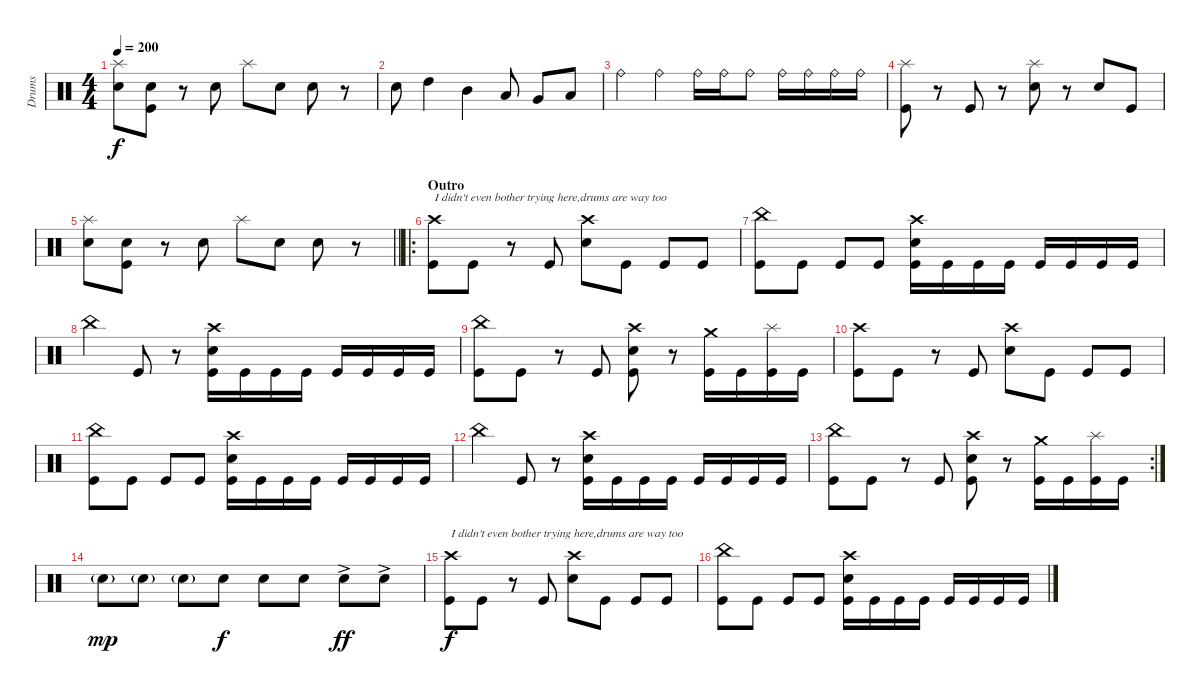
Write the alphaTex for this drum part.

\track ("Drums" "Drums") {instrument percussion}
\staff {score}
\articulation defaults
\ts (4 4)
\tempo 200
\clef neutral
\ks c
("Splash (hit)" "Snare (hit) 2").8{dy f} ("Snare (hit) 2" "Kick (hit)").8 r.8 "Snare (hit) 2".8 "Splash (hit)".8 "Snare (hit) 2".8 "Snare (hit) 2".8 r.8 |
"Snare (hit) 2".8 "High Tom (hit)".4 "Mid Tom (hit)".4 "Low Tom (hit)".8 "Very Low Tom (hit)".8 "Low Floor Tom (hit)".8 |
"Ride (bell)".4 "Ride (bell)".4 "Ride (bell)".16 "Ride (bell)".16 "Ride (bell)".8 "Ride (bell)".16 "Ride (bell)".16 "Ride (bell)".16 "Ride (bell)".16 |
("Splash (hit)" "Kick (hit)").8 r.8 "Kick (hit)".8 r.8 ("Splash (hit)" "Snare (hit) 2").8 r.8 "Snare (hit) 2".8 "Kick (hit)".8 |
\barLineRight lightlight
("Splash (hit)" "Snare (hit) 2").8 ("Snare (hit) 2" "Kick (hit)").8 r.8 "Snare (hit) 2".8 "Splash (hit)".8 "Snare (hit) 2".8 "Snare (hit) 2".8 r.8 |
\ro
\section ("" "Outro")
("Crash high (hit)" "Kick (hit)").8{txt "I didn't even bother trying here,drums are way too"} "Kick (hit)".8 r.8 "Kick (hit)".8 ("Crash high (hit)" "Snare (hit) 2").8 "Kick (hit)".8 "Kick (hit)".8 "Kick (hit)".8 |
("China (hit)" "Kick (hit)").8 "Kick (hit)".8 "Kick (hit)".8 "Kick (hit)".8 ("Crash high (hit)" "Snare (hit) 2" "Kick (hit)").16 "Kick (hit)".16 "Kick (hit)".16 "Kick (hit)".16 "Kick (hit)".16 "Kick (hit)".16 "Kick (hit)".16 "Kick (hit)".16 |
"China (hit)".4 "Kick (hit)".8 r.8 ("Crash high (hit)" "Snare (hit) 2" "Kick (hit)").16 "Kick (hit)".16 "Kick (hit)".16 "Kick (hit)".16 "Kick (hit)".16 "Kick (hit)".16 "Kick (hit)".16 "Kick (hit)".16 |
("China (hit)" "Kick (hit)").8 "Kick (hit)".8 r.8 "Kick (hit)".8 ("Crash high (hit)" "Snare (hit) 2" "Kick (hit)").8 r.8 ("Crash medium (hit)" "Kick (hit)").16 "Kick (hit)".16 ("Splash (hit)" "Kick (hit)").16 "Kick (hit)".16 |
("Crash high (hit)" "Kick (hit)").8 "Kick (hit)".8 r.8 "Kick (hit)".8 ("Crash high (hit)" "Snare (hit) 2").8 "Kick (hit)".8 "Kick (hit)".8 "Kick (hit)".8 |
("China (hit)" "Kick (hit)").8 "Kick (hit)".8 "Kick (hit)".8 "Kick (hit)".8 ("Crash high (hit)" "Snare (hit) 2" "Kick (hit)").16 "Kick (hit)".16 "Kick (hit)".16 "Kick (hit)".16 "Kick (hit)".16 "Kick (hit)".16 "Kick (hit)".16 "Kick (hit)".16 |
"China (hit)".4 "Kick (hit)".8 r.8 ("Crash high (hit)" "Snare (hit) 2" "Kick (hit)").16 "Kick (hit)".16 "Kick (hit)".16 "Kick (hit)".16 "Kick (hit)".16 "Kick (hit)".16 "Kick (hit)".16 "Kick (hit)".16 |
\rc 2
("China (hit)" "Kick (hit)").8 "Kick (hit)".8 r.8 "Kick (hit)".8 ("Crash high (hit)" "Snare (hit) 2" "Kick (hit)").8 r.8 ("Crash medium (hit)" "Kick (hit)").16 "Kick (hit)".16 ("Splash (hit)" "Kick (hit)").16 "Kick (hit)".16 |
"Snare (hit) 2"{g}.8{dy mp} "Snare (hit) 2"{g}.8 "Snare (hit) 2"{g}.8 "Snare (hit) 2".8{dy f} "Snare (hit) 2".8 "Snare (hit) 2".8 "Snare (hit) 2"{ac}.8{dy ff} "Snare (hit) 2"{ac}.8 |
("Crash high (hit)" "Kick (hit)").8{txt "I didn't even bother trying here,drums are way too" dy f} "Kick (hit)".8 r.8 "Kick (hit)".8 ("Crash high (hit)" "Snare (hit) 2").8 "Kick (hit)".8 "Kick (hit)".8 "Kick (hit)".8 |
("China (hit)" "Kick (hit)").8 "Kick (hit)".8 "Kick (hit)".8 "Kick (hit)".8 ("Crash high (hit)" "Snare (hit) 2" "Kick (hit)").16 "Kick (hit)".16 "Kick (hit)".16 "Kick (hit)".16 "Kick (hit)".16 "Kick (hit)".16 "Kick (hit)".16 "Kick (hit)".16
